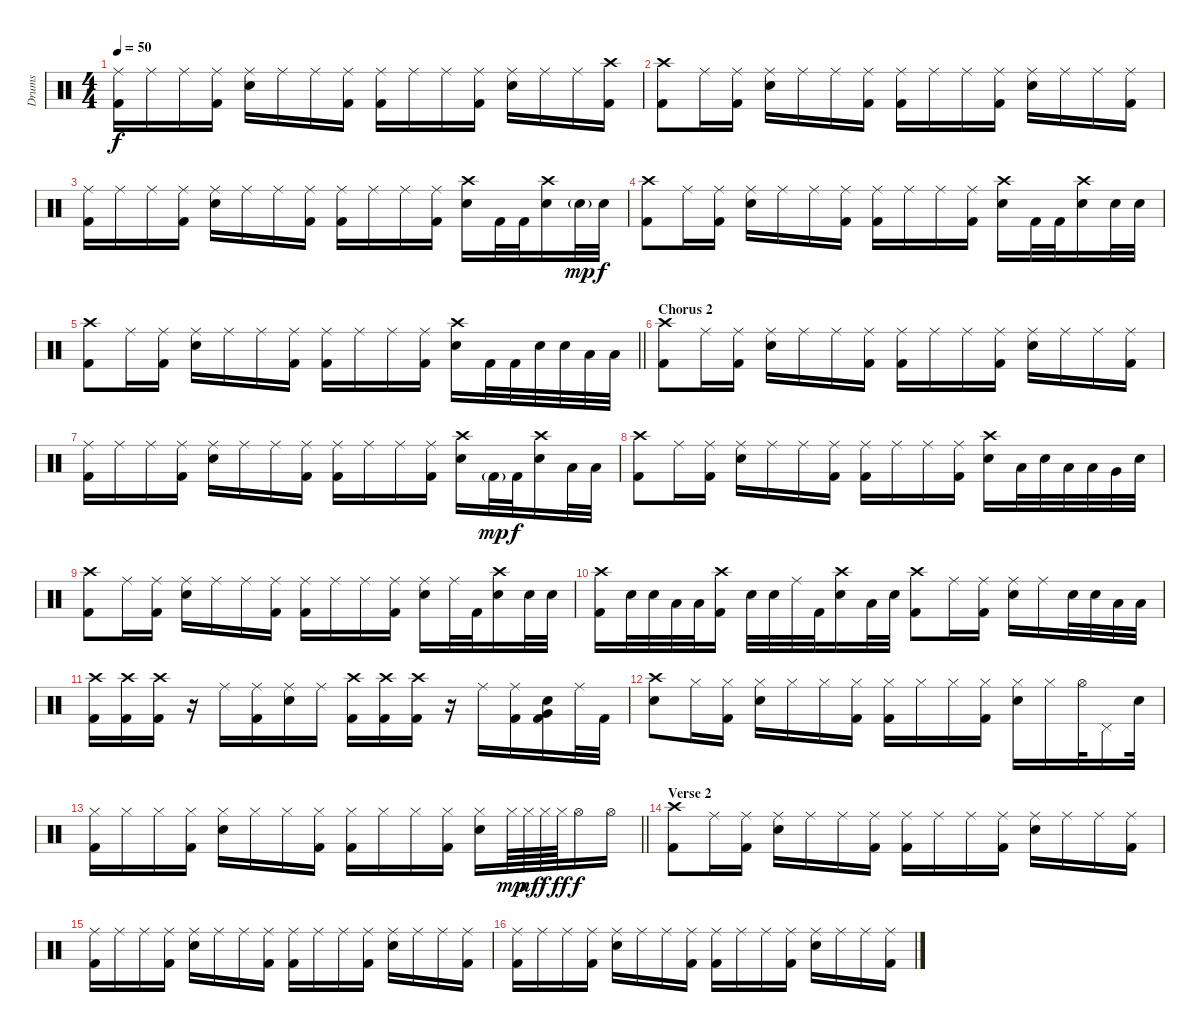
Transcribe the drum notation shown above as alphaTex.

\track ("Drums" "Drums") {instrument percussion}
\staff {score}
\articulation defaults
\ts (4 4)
\tempo 50
\clef neutral
\ks c
("Ride (middle)" "Kick (hit) 2").16{dy f} "Ride (middle)".16 "Ride (middle)".16 ("Ride (middle)" "Kick (hit) 2").16 ("Ride (middle)" "Snare (hit) 2").16 "Ride (middle)".16 "Ride (middle)".16 ("Ride (middle)" "Kick (hit) 2").16 ("Ride (middle)" "Kick (hit) 2").16 "Ride (middle)".16 "Ride (middle)".16 ("Ride (middle)" "Kick (hit) 2").16 ("Ride (middle)" "Snare (hit) 2").16 "Ride (middle)".16 "Ride (middle)".16 ("Crash high (hit)" "Kick (hit) 2").16 |
("Crash high (hit)" "Kick (hit) 2").8 "Ride (middle)".16 ("Ride (middle)" "Kick (hit) 2").16 ("Ride (middle)" "Snare (hit) 2").16 "Ride (middle)".16 "Ride (middle)".16 ("Ride (middle)" "Kick (hit) 2").16 ("Ride (middle)" "Kick (hit) 2").16 "Ride (middle)".16 "Ride (middle)".16 ("Ride (middle)" "Kick (hit) 2").16 ("Ride (middle)" "Snare (hit) 2").16 "Ride (middle)".16 "Ride (middle)".16 ("Ride (middle)" "Kick (hit) 2").16 |
("Ride (middle)" "Kick (hit) 2").16 "Ride (middle)".16 "Ride (middle)".16 ("Ride (middle)" "Kick (hit) 2").16 ("Ride (middle)" "Snare (hit) 2").16 "Ride (middle)".16 "Ride (middle)".16 ("Ride (middle)" "Kick (hit) 2").16 ("Ride (middle)" "Kick (hit) 2").16 "Ride (middle)".16 "Ride (middle)".16 ("Ride (middle)" "Kick (hit) 2").16 ("Crash high (hit)" "Snare (hit) 2").16 "Kick (hit) 2".32 "Kick (hit) 2".32 ("Crash high (hit)" "Snare (hit) 2").16 "Snare (hit) 2"{g}.32{dy mp} "Snare (hit) 2".32{dy f} |
("Crash high (hit)" "Kick (hit) 2").8 "Ride (middle)".16 ("Ride (middle)" "Kick (hit) 2").16 ("Ride (middle)" "Snare (hit) 2").16 "Ride (middle)".16 "Ride (middle)".16 ("Ride (middle)" "Kick (hit) 2").16 ("Ride (middle)" "Kick (hit) 2").16 "Ride (middle)".16 "Ride (middle)".16 ("Ride (middle)" "Kick (hit) 2").16 ("Crash high (hit)" "Snare (hit) 2").16 "Kick (hit) 2".32 "Kick (hit) 2".32 ("Crash high (hit)" "Snare (hit) 2").16 "Snare (hit) 2".32 "Snare (hit) 2".32 |
\barLineRight lightlight
("Crash high (hit)" "Kick (hit) 2").8 "Ride (middle)".16 ("Ride (middle)" "Kick (hit) 2").16 ("Ride (middle)" "Snare (hit) 2").16 "Ride (middle)".16 "Ride (middle)".16 ("Ride (middle)" "Kick (hit) 2").16 ("Ride (middle)" "Kick (hit) 2").16 "Ride (middle)".16 "Ride (middle)".16 ("Ride (middle)" "Kick (hit) 2").16 ("Crash high (hit)" "Snare (hit) 2").16 "Kick (hit) 2".32 "Kick (hit) 2".32 "Snare (hit) 2".32 "Snare (hit) 2".32 "Low Tom (hit)".32 "Low Tom (hit)".32 |
\section ("" "Chorus 2")
("Crash high (hit)" "Kick (hit) 2").8 "Ride (middle)".16 ("Ride (middle)" "Kick (hit) 2").16 ("Ride (middle)" "Snare (hit) 2").16 "Ride (middle)".16 "Ride (middle)".16 ("Ride (middle)" "Kick (hit) 2").16 ("Ride (middle)" "Kick (hit) 2").16 "Ride (middle)".16 "Ride (middle)".16 ("Ride (middle)" "Kick (hit) 2").16 ("Ride (middle)" "Snare (hit) 2").16 "Ride (middle)".16 "Ride (middle)".16 ("Ride (middle)" "Kick (hit) 2").16 |
("Ride (middle)" "Kick (hit) 2").16 "Ride (middle)".16 "Ride (middle)".16 ("Ride (middle)" "Kick (hit) 2").16 ("Ride (middle)" "Snare (hit) 2").16 "Ride (middle)".16 "Ride (middle)".16 ("Ride (middle)" "Kick (hit) 2").16 ("Ride (middle)" "Kick (hit) 2").16 "Ride (middle)".16 "Ride (middle)".16 ("Ride (middle)" "Kick (hit) 2").16 ("Crash high (hit)" "Snare (hit) 2").16 "Kick (hit) 2"{g}.32{dy mp} "Kick (hit) 2".32{dy f} ("Crash high (hit)" "Snare (hit) 2").16 "Low Tom (hit)".32 "Low Tom (hit)".32 |
("Crash high (hit)" "Kick (hit) 2").8 "Ride (middle)".16 ("Ride (middle)" "Kick (hit) 2").16 ("Ride (middle)" "Snare (hit) 2").16 "Ride (middle)".16 "Ride (middle)".16 ("Ride (middle)" "Kick (hit) 2").16 ("Ride (middle)" "Kick (hit) 2").16 "Ride (middle)".16 "Ride (middle)".16 ("Ride (middle)" "Kick (hit) 2").16 ("Crash high (hit)" "Snare (hit) 2").16 "Low Tom (hit)".32 "Snare (hit) 2".32 "Low Tom (hit)".32 "Low Tom (hit)".32 "Very Low Tom (hit)".32 "Snare (hit) 2".32 |
("Crash high (hit)" "Kick (hit) 2").8 "Ride (middle)".16 ("Ride (middle)" "Kick (hit) 2").16 ("Ride (middle)" "Snare (hit) 2").16 "Ride (middle)".16 "Ride (middle)".16 ("Ride (middle)" "Kick (hit) 2").16 ("Ride (middle)" "Kick (hit) 2").16 "Ride (middle)".16 "Ride (middle)".16 ("Ride (middle)" "Kick (hit) 2").16 ("Ride (middle)" "Snare (hit) 2").16 "Ride (middle)".32 "Kick (hit) 2".32 ("Crash high (hit)" "Snare (hit) 2").16 "Snare (hit) 2".32 "Snare (hit) 2".32 |
("Crash high (hit)" "Kick (hit) 2").16 "Snare (hit) 2".32 "Snare (hit) 2".32 "Low Tom (hit)".32 "Low Tom (hit)".32 ("Crash high (hit)" "Kick (hit) 2").16 "Snare (hit) 2".32 "Snare (hit) 2".32 "Ride (middle)".32 "Kick (hit) 2".32 ("Crash high (hit)" "Snare (hit) 2").16 "Low Tom (hit)".32 "Snare (hit) 2".32 ("Crash high (hit)" "Kick (hit) 2").8 "Ride (middle)".16 ("Ride (middle)" "Kick (hit) 2").16 ("Ride (middle)" "Snare (hit) 2").16 "Ride (middle)".16 "Snare (hit) 2".32 "Snare (hit) 2".32 "Low Tom (hit)".32 "Low Tom (hit)".32 |
("Crash high (hit)" "Kick (hit) 2").16 ("Crash high (hit)" "Kick (hit) 2").16 ("Crash high (hit)" "Kick (hit) 2").16 r.16 "Ride (middle)".16 ("Ride (middle)" "Kick (hit) 2").16 ("Ride (middle)" "Snare (hit) 2").16 "Ride (middle)".16 ("Crash high (hit)" "Kick (hit) 2").16 ("Crash high (hit)" "Kick (hit) 2").16 ("Crash high (hit)" "Kick (hit) 2").16 r.16 "Ride (middle)".16 ("Ride (middle)" "Kick (hit) 2").16 ("Very Low Tom (hit)" "Snare (hit) 2" "Kick (hit) 2").16 "Ride (middle)".32 "Kick (hit) 2".32 |
("Crash high (hit)" "Snare (hit) 2").8 "Hi-Hat (closed)".16 ("Hi-Hat (closed)" "Kick (hit) 2").16 ("Hi-Hat (closed)" "Snare (hit) 2").16 "Hi-Hat (closed)".16 "Hi-Hat (closed)".16 ("Hi-Hat (closed)" "Kick (hit) 2").16 ("Hi-Hat (closed)" "Kick (hit) 2").16 "Hi-Hat (closed)".16 "Hi-Hat (closed)".16 ("Hi-Hat (closed)" "Kick (hit) 2").16 ("Hi-Hat (closed)" "Snare (hit) 2").16 "Hi-Hat (closed)".16 "Hi-Hat (open)".32 "Pedal Hi-Hat (hit)".16 "Snare (hit) 2".32 |
\barLineRight lightlight
("Hi-Hat (closed)" "Kick (hit) 2").16 "Hi-Hat (closed)".16 "Hi-Hat (closed)".16 ("Hi-Hat (closed)" "Kick (hit) 2").16 ("Hi-Hat (closed)" "Snare (hit) 2").16 "Hi-Hat (closed)".16 "Hi-Hat (closed)".16 ("Hi-Hat (closed)" "Kick (hit) 2").16 ("Hi-Hat (closed)" "Kick (hit) 2").16 "Hi-Hat (closed)".16 "Hi-Hat (closed)".16 ("Hi-Hat (closed)" "Kick (hit) 2").16 ("Hi-Hat (closed)" "Snare (hit) 2").16 "Hi-Hat (closed)".64{dy mp} "Hi-Hat (closed)".64{dy mf} "Hi-Hat (closed)".64{dy f} "Hi-Hat (closed)".64{dy ff} "Hi-Hat (open)".16{dy f} "Hi-Hat (open)".16 |
\section ("" "Verse 2")
("Crash high (hit)" "Kick (hit) 2").8 "Ride (middle)".16 ("Ride (middle)" "Kick (hit) 2").16 ("Ride (middle)" "Snare (hit) 2").16 "Ride (middle)".16 "Ride (middle)".16 ("Ride (middle)" "Kick (hit) 2").16 ("Ride (middle)" "Kick (hit) 2").16 "Ride (middle)".16 "Ride (middle)".16 ("Ride (middle)" "Kick (hit) 2").16 ("Ride (middle)" "Snare (hit) 2").16 "Ride (middle)".16 "Ride (middle)".16 ("Ride (middle)" "Kick (hit) 2").16 |
("Ride (middle)" "Kick (hit) 2").16 "Ride (middle)".16 "Ride (middle)".16 ("Ride (middle)" "Kick (hit) 2").16 ("Ride (middle)" "Snare (hit) 2").16 "Ride (middle)".16 "Ride (middle)".16 ("Ride (middle)" "Kick (hit) 2").16 ("Ride (middle)" "Kick (hit) 2").16 "Ride (middle)".16 "Ride (middle)".16 ("Ride (middle)" "Kick (hit) 2").16 ("Ride (middle)" "Snare (hit) 2").16 "Ride (middle)".16 "Ride (middle)".16 ("Ride (middle)" "Kick (hit) 2").16 |
("Ride (middle)" "Kick (hit) 2").16 "Ride (middle)".16 "Ride (middle)".16 ("Ride (middle)" "Kick (hit) 2").16 ("Ride (middle)" "Snare (hit) 2").16 "Ride (middle)".16 "Ride (middle)".16 ("Ride (middle)" "Kick (hit) 2").16 ("Ride (middle)" "Kick (hit) 2").16 "Ride (middle)".16 "Ride (middle)".16 ("Ride (middle)" "Kick (hit) 2").16 ("Ride (middle)" "Snare (hit) 2").16 "Ride (middle)".16 "Ride (middle)".16 ("Ride (middle)" "Kick (hit) 2").16
